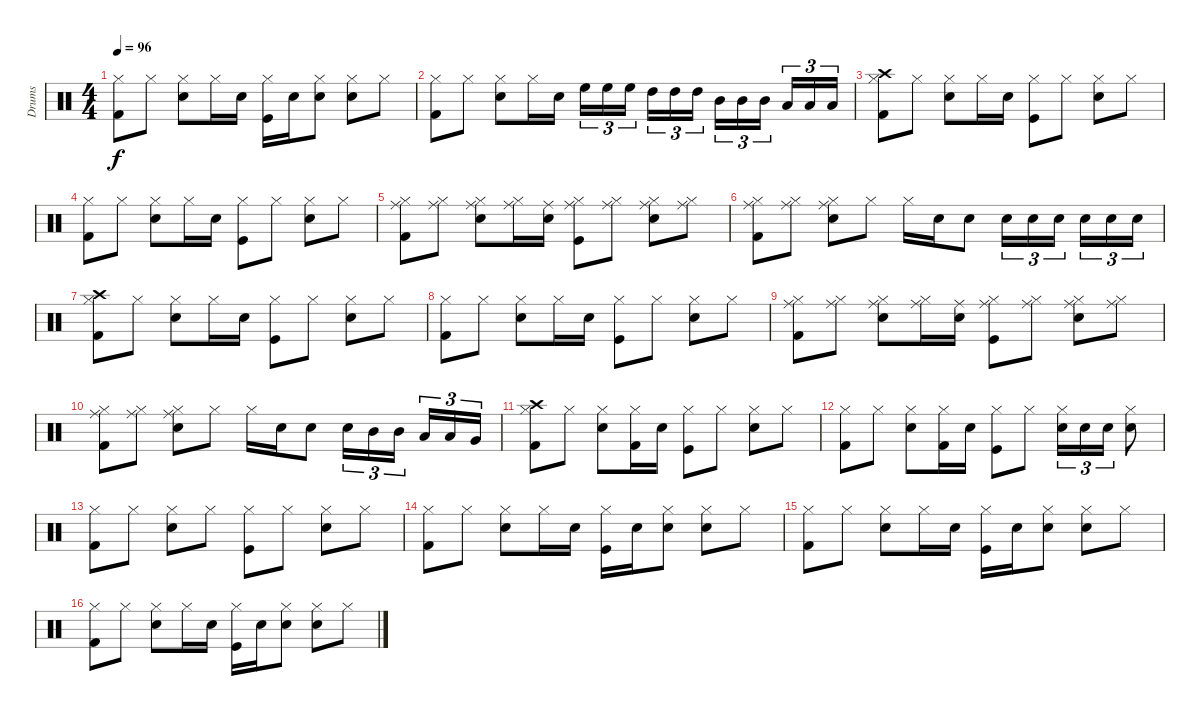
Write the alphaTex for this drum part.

\track ("Drums" "Drums") {instrument percussion}
\staff {score}
\articulation defaults
\ts (4 4)
\tempo 96
\clef neutral
\ks c
("Kick (hit) 2" "Hi-Hat (closed)").8{dy f} "Hi-Hat (closed)".8 ("Snare (hit) 2" "Hi-Hat (closed)").8 "Hi-Hat (closed)".16 "Snare (hit) 2".16 ("Kick (hit)" "Hi-Hat (closed)").16 "Snare (hit) 2".16 ("Snare (hit) 2" "Hi-Hat (closed)").8 ("Snare (hit) 2" "Hi-Hat (closed)").8 "Hi-Hat (closed)".8 |
("Kick (hit) 2" "Hi-Hat (closed)").8 "Hi-Hat (closed)".8 ("Snare (hit) 2" "Hi-Hat (closed)").8 "Hi-Hat (closed)".16 "Snare (hit) 2".16 "High Floor Tom (hit)".16{tu (3 2)} "High Floor Tom (hit)".16{tu (3 2)} "High Floor Tom (hit)".16{tu (3 2)} "High Tom (hit)".16{tu (3 2)} "High Tom (hit)".16{tu (3 2)} "High Tom (hit)".16{tu (3 2)} "Mid Tom (hit)".16{tu (3 2)} "Mid Tom (hit)".16{tu (3 2)} "Mid Tom (hit)".16{tu (3 2)} "Low Tom (hit)".16{tu (3 2)} "Low Tom (hit)".16{tu (3 2)} "Low Tom (hit)".16{tu (3 2)} |
("Kick (hit) 2" "Hi-Hat (closed)" "Crash high (hit)").8 "Hi-Hat (closed)".8 ("Snare (hit) 2" "Hi-Hat (closed)").8 "Hi-Hat (closed)".16 "Snare (hit) 2".16 ("Kick (hit)" "Hi-Hat (closed)").8 "Hi-Hat (closed)".8 ("Snare (hit) 2" "Hi-Hat (closed)").8 "Hi-Hat (closed)".8 |
("Kick (hit) 2" "Hi-Hat (closed)").8 "Hi-Hat (closed)".8 ("Snare (hit) 2" "Hi-Hat (closed)").8 "Hi-Hat (closed)".16 "Snare (hit) 2".16 ("Kick (hit)" "Hi-Hat (closed)").8 "Hi-Hat (closed)".8 ("Snare (hit) 2" "Hi-Hat (closed)").8 "Hi-Hat (closed)".8 |
("Kick (hit) 2" "Hi-Hat (closed)" "Ride (middle)").8 ("Hi-Hat (closed)" "Ride (middle)").8 ("Snare (hit) 2" "Hi-Hat (closed)" "Ride (middle)").8 ("Hi-Hat (closed)" "Ride (middle)").16 ("Snare (hit) 2" "Ride (middle)").16 ("Kick (hit)" "Hi-Hat (closed)" "Ride (middle)").8 ("Hi-Hat (closed)" "Ride (middle)").8 ("Snare (hit) 2" "Hi-Hat (closed)" "Ride (middle)").8 ("Hi-Hat (closed)" "Ride (middle)").8 |
("Kick (hit) 2" "Hi-Hat (closed)" "Ride (middle)").8 ("Hi-Hat (closed)" "Ride (middle)").8 ("Snare (hit) 2" "Hi-Hat (closed)" "Ride (middle)").8 "Hi-Hat (closed)".8 "Hi-Hat (closed)".16 "Snare (hit) 2".16 "Snare (hit) 2".8 "Snare (hit) 2".16{tu (3 2)} "Snare (hit) 2".16{tu (3 2)} "Snare (hit) 2".16{tu (3 2)} "Snare (hit) 2".16{tu (3 2)} "Snare (hit) 2".16{tu (3 2)} "Snare (hit) 2".16{tu (3 2)} |
("Kick (hit) 2" "Hi-Hat (closed)" "Crash high (hit)").8 "Hi-Hat (closed)".8 ("Snare (hit) 2" "Hi-Hat (closed)").8 "Hi-Hat (closed)".16 "Snare (hit) 2".16 ("Kick (hit)" "Hi-Hat (closed)").8 "Hi-Hat (closed)".8 ("Snare (hit) 2" "Hi-Hat (closed)").8 "Hi-Hat (closed)".8 |
("Kick (hit) 2" "Hi-Hat (closed)").8 "Hi-Hat (closed)".8 ("Snare (hit) 2" "Hi-Hat (closed)").8 "Hi-Hat (closed)".16 "Snare (hit) 2".16 ("Kick (hit)" "Hi-Hat (closed)").8 "Hi-Hat (closed)".8 ("Snare (hit) 2" "Hi-Hat (closed)").8 "Hi-Hat (closed)".8 |
("Kick (hit) 2" "Hi-Hat (closed)" "Ride (middle)").8 ("Hi-Hat (closed)" "Ride (middle)").8 ("Snare (hit) 2" "Hi-Hat (closed)" "Ride (middle)").8 ("Hi-Hat (closed)" "Ride (middle)").16 ("Snare (hit) 2" "Ride (middle)").16 ("Kick (hit)" "Hi-Hat (closed)" "Ride (middle)").8 ("Hi-Hat (closed)" "Ride (middle)").8 ("Snare (hit) 2" "Hi-Hat (closed)" "Ride (middle)").8 ("Hi-Hat (closed)" "Ride (middle)").8 |
("Kick (hit) 2" "Hi-Hat (closed)" "Ride (middle)").8 ("Hi-Hat (closed)" "Ride (middle)").8 ("Snare (hit) 2" "Hi-Hat (closed)" "Ride (middle)").8 "Hi-Hat (closed)".8 "Hi-Hat (closed)".16 "Snare (hit) 2".16 "Snare (hit) 2".8 "Snare (hit) 2".16{tu (3 2)} "Mid Tom (hit)".16{tu (3 2)} "Mid Tom (hit)".16{tu (3 2)} "Low Tom (hit)".16{tu (3 2)} "Low Tom (hit)".16{tu (3 2)} "Very Low Tom (hit)".16{tu (3 2)} |
("Kick (hit) 2" "Hi-Hat (closed)" "Crash high (hit)").8 "Hi-Hat (closed)".8 ("Snare (hit) 2" "Hi-Hat (closed)").8 ("Kick (hit) 2" "Hi-Hat (closed)").16 "Snare (hit) 2".16 ("Kick (hit)" "Hi-Hat (closed)").8 "Hi-Hat (closed)".8 ("Snare (hit) 2" "Hi-Hat (closed)").8 "Hi-Hat (closed)".8 |
("Kick (hit) 2" "Hi-Hat (closed)").8 "Hi-Hat (closed)".8 ("Snare (hit) 2" "Hi-Hat (closed)").8 ("Kick (hit) 2" "Hi-Hat (closed)").16 "Snare (hit) 2".16 ("Kick (hit)" "Hi-Hat (closed)").8 "Hi-Hat (closed)".8 ("Snare (hit) 2" "Hi-Hat (closed)").16{tu (3 2)} "Snare (hit) 2".16{tu (3 2)} "Snare (hit) 2".16{tu (3 2)} ("Snare (hit) 2" "Hi-Hat (closed)").8 |
("Kick (hit) 2" "Hi-Hat (closed)").8 "Hi-Hat (closed)".8 ("Snare (hit) 2" "Hi-Hat (closed)").8 "Hi-Hat (closed)".8 ("Kick (hit)" "Hi-Hat (closed)").8 "Hi-Hat (closed)".8 ("Snare (hit) 2" "Hi-Hat (closed)").8 "Hi-Hat (closed)".8 |
("Kick (hit) 2" "Hi-Hat (closed)").8 "Hi-Hat (closed)".8 ("Snare (hit) 2" "Hi-Hat (closed)").8 "Hi-Hat (closed)".16 "Snare (hit) 2".16 ("Kick (hit)" "Hi-Hat (closed)").16 "Snare (hit) 2".16 ("Snare (hit) 2" "Hi-Hat (closed)").8 ("Snare (hit) 2" "Hi-Hat (closed)").8 "Hi-Hat (closed)".8 |
("Kick (hit) 2" "Hi-Hat (closed)").8 "Hi-Hat (closed)".8 ("Snare (hit) 2" "Hi-Hat (closed)").8 "Hi-Hat (closed)".16 "Snare (hit) 2".16 ("Kick (hit)" "Hi-Hat (closed)").16 "Snare (hit) 2".16 ("Snare (hit) 2" "Hi-Hat (closed)").8 ("Snare (hit) 2" "Hi-Hat (closed)").8 "Hi-Hat (closed)".8 |
("Kick (hit) 2" "Hi-Hat (closed)").8 "Hi-Hat (closed)".8 ("Snare (hit) 2" "Hi-Hat (closed)").8 "Hi-Hat (closed)".16 "Snare (hit) 2".16 ("Kick (hit)" "Hi-Hat (closed)").16 "Snare (hit) 2".16 ("Snare (hit) 2" "Hi-Hat (closed)").8 ("Snare (hit) 2" "Hi-Hat (closed)").8 "Hi-Hat (closed)".8
